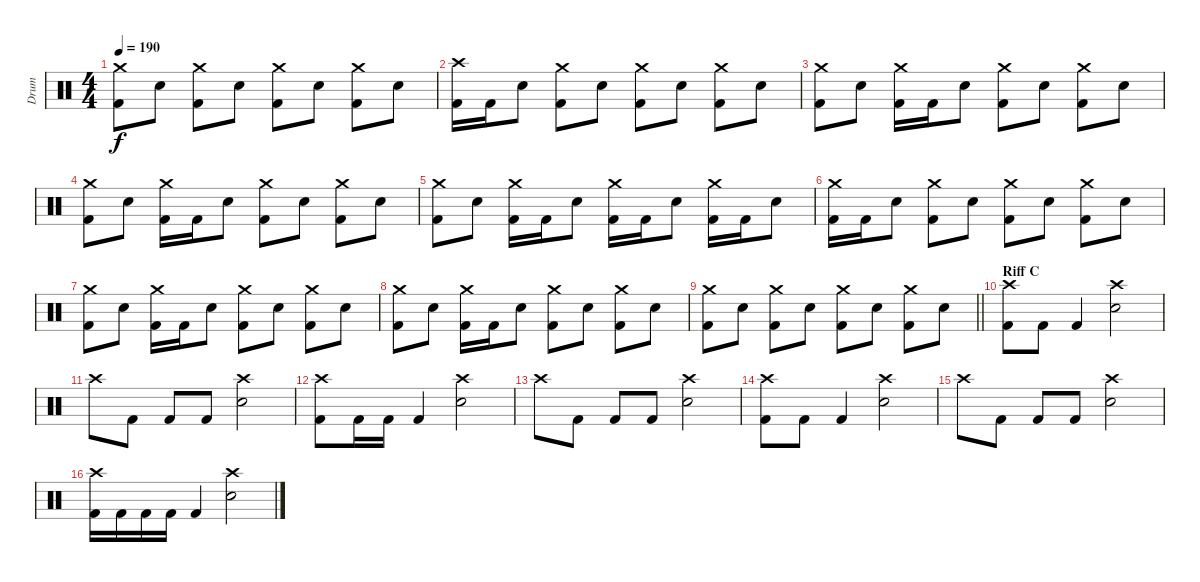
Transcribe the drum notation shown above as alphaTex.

\track ("Drum" "Drum") {instrument percussion}
\staff {score}
\articulation defaults
\ts (4 4)
\tempo 190
\clef neutral
\ks c
("Crash medium (hit)" "Kick (hit) 2").8{dy f} "Electric Snare (hit)".8 ("Crash medium (hit)" "Kick (hit) 2").8 "Electric Snare (hit)".8 ("Crash medium (hit)" "Kick (hit) 2").8 "Electric Snare (hit)".8 ("Crash medium (hit)" "Kick (hit) 2").8 "Electric Snare (hit)".8 |
("Crash high (hit)" "Kick (hit) 2").16 "Kick (hit) 2".16 "Electric Snare (hit)".8 ("Crash medium (hit)" "Kick (hit) 2").8 "Electric Snare (hit)".8 ("Crash medium (hit)" "Kick (hit) 2").8 "Electric Snare (hit)".8 ("Crash medium (hit)" "Kick (hit) 2").8 "Electric Snare (hit)".8 |
("Crash medium (hit)" "Kick (hit) 2").8 "Electric Snare (hit)".8 ("Crash medium (hit)" "Kick (hit) 2").16 "Kick (hit) 2".16 "Electric Snare (hit)".8 ("Crash medium (hit)" "Kick (hit) 2").8 "Electric Snare (hit)".8 ("Crash medium (hit)" "Kick (hit) 2").8 "Electric Snare (hit)".8 |
("Crash medium (hit)" "Kick (hit) 2").8 "Electric Snare (hit)".8 ("Crash medium (hit)" "Kick (hit) 2").16 "Kick (hit) 2".16 "Electric Snare (hit)".8 ("Crash medium (hit)" "Kick (hit) 2").8 "Electric Snare (hit)".8 ("Crash medium (hit)" "Kick (hit) 2").8 "Electric Snare (hit)".8 |
("Crash medium (hit)" "Kick (hit) 2").8 "Electric Snare (hit)".8 ("Crash medium (hit)" "Kick (hit) 2").16 "Kick (hit) 2".16 "Electric Snare (hit)".8 ("Crash medium (hit)" "Kick (hit) 2").16 "Kick (hit) 2".16 "Electric Snare (hit)".8 ("Crash medium (hit)" "Kick (hit) 2").16 "Kick (hit) 2".16 "Electric Snare (hit)".8 |
("Crash medium (hit)" "Kick (hit) 2").16 "Kick (hit) 2".16 "Electric Snare (hit)".8 ("Crash medium (hit)" "Kick (hit) 2").8 "Electric Snare (hit)".8 ("Crash medium (hit)" "Kick (hit) 2").8 "Electric Snare (hit)".8 ("Crash medium (hit)" "Kick (hit) 2").8 "Electric Snare (hit)".8 |
("Crash medium (hit)" "Kick (hit) 2").8 "Electric Snare (hit)".8 ("Crash medium (hit)" "Kick (hit) 2").16 "Kick (hit) 2".16 "Electric Snare (hit)".8 ("Crash medium (hit)" "Kick (hit) 2").8 "Electric Snare (hit)".8 ("Crash medium (hit)" "Kick (hit) 2").8 "Electric Snare (hit)".8 |
("Crash medium (hit)" "Kick (hit) 2").8 "Electric Snare (hit)".8 ("Crash medium (hit)" "Kick (hit) 2").16 "Kick (hit) 2".16 "Electric Snare (hit)".8 ("Crash medium (hit)" "Kick (hit) 2").8 "Electric Snare (hit)".8 ("Crash medium (hit)" "Kick (hit) 2").8 "Electric Snare (hit)".8 |
\barLineRight lightlight
("Crash medium (hit)" "Kick (hit) 2").8 "Electric Snare (hit)".8 ("Crash medium (hit)" "Kick (hit) 2").8 "Electric Snare (hit)".8 ("Crash medium (hit)" "Kick (hit) 2").8 "Electric Snare (hit)".8 ("Crash medium (hit)" "Kick (hit) 2").8 "Electric Snare (hit)".8 |
\section ("" "Riff C")
("Crash high (hit)" "Kick (hit) 2").8 "Kick (hit) 2".8 "Kick (hit) 2".4 ("Crash high (hit)" "Electric Snare (hit)").2 |
"Crash high (hit)".8 "Kick (hit) 2".8 "Kick (hit) 2".8 "Kick (hit) 2".8 ("Crash high (hit)" "Electric Snare (hit)").2 |
("Crash high (hit)" "Kick (hit) 2").8 "Kick (hit) 2".16 "Kick (hit) 2".16 "Kick (hit) 2".4 ("Crash high (hit)" "Electric Snare (hit)").2 |
"Crash high (hit)".8 "Kick (hit) 2".8 "Kick (hit) 2".8 "Kick (hit) 2".8 ("Crash high (hit)" "Electric Snare (hit)").2 |
("Crash high (hit)" "Kick (hit) 2").8 "Kick (hit) 2".8 "Kick (hit) 2".4 ("Crash high (hit)" "Electric Snare (hit)").2 |
"Crash high (hit)".8 "Kick (hit) 2".8 "Kick (hit) 2".8 "Kick (hit) 2".8 ("Crash high (hit)" "Electric Snare (hit)").2 |
("Crash high (hit)" "Kick (hit) 2").16 "Kick (hit) 2".16 "Kick (hit) 2".16 "Kick (hit) 2".16 "Kick (hit) 2".4 ("Crash high (hit)" "Electric Snare (hit)").2
